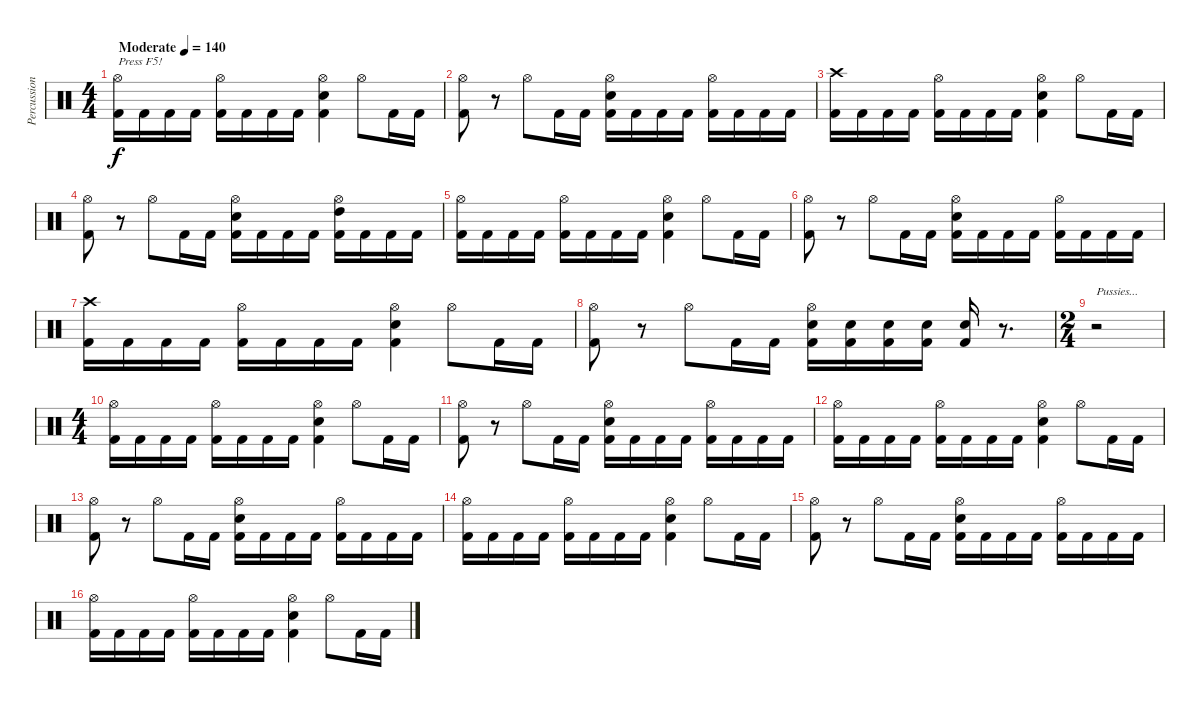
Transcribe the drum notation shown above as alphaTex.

\track ("Percussion" "Percussion") {instrument percussion}
\staff {score}
\articulation defaults
\ts (4 4)
\tempo (140 "Moderate")
\clef neutral
\ks c
("Hi-Hat (open)" "Kick (hit) 2").16{txt "Press F5!" dy f} "Kick (hit) 2".16 "Kick (hit) 2".16 "Kick (hit) 2".16 ("Hi-Hat (open)" "Kick (hit) 2").16 "Kick (hit) 2".16 "Kick (hit) 2".16 "Kick (hit) 2".16 ("Hi-Hat (open)" "Snare (hit) 2" "Kick (hit) 2").4 "Hi-Hat (open)".8 "Kick (hit) 2".16 "Kick (hit) 2".16 |
("Hi-Hat (open)" "Kick (hit) 2").8 r.8 "Hi-Hat (open)".8 "Kick (hit) 2".16 "Kick (hit) 2".16 ("Hi-Hat (open)" "Snare (hit) 2" "Kick (hit) 2").16 "Kick (hit) 2".16 "Kick (hit) 2".16 "Kick (hit) 2".16 ("Hi-Hat (open)" "Kick (hit) 2").16 "Kick (hit) 2".16 "Kick (hit) 2".16 "Kick (hit) 2".16 |
("Crash high (hit)" "Kick (hit) 2").16 "Kick (hit) 2".16 "Kick (hit) 2".16 "Kick (hit) 2".16 ("Hi-Hat (open)" "Kick (hit) 2").16 "Kick (hit) 2".16 "Kick (hit) 2".16 "Kick (hit) 2".16 ("Hi-Hat (open)" "Snare (hit) 2" "Kick (hit) 2").4 "Hi-Hat (open)".8 "Kick (hit) 2".16 "Kick (hit) 2".16 |
("Hi-Hat (open)" "Kick (hit) 2").8 r.8 "Hi-Hat (open)".8 "Kick (hit) 2".16 "Kick (hit) 2".16 ("Hi-Hat (open)" "Snare (hit) 2" "Kick (hit) 2").16 "Kick (hit) 2".16 "Kick (hit) 2".16 "Kick (hit) 2".16 ("Hi-Hat (open)" "High Tom (hit)" "Kick (hit) 2").16 "Kick (hit) 2".16 "Kick (hit) 2".16 "Kick (hit) 2".16 |
("Hi-Hat (open)" "Kick (hit) 2").16 "Kick (hit) 2".16 "Kick (hit) 2".16 "Kick (hit) 2".16 ("Hi-Hat (open)" "Kick (hit) 2").16 "Kick (hit) 2".16 "Kick (hit) 2".16 "Kick (hit) 2".16 ("Hi-Hat (open)" "Snare (hit) 2" "Kick (hit) 2").4 "Hi-Hat (open)".8 "Kick (hit) 2".16 "Kick (hit) 2".16 |
("Hi-Hat (open)" "Kick (hit) 2").8 r.8 "Hi-Hat (open)".8 "Kick (hit) 2".16 "Kick (hit) 2".16 ("Hi-Hat (open)" "Snare (hit) 2" "Kick (hit) 2").16 "Kick (hit) 2".16 "Kick (hit) 2".16 "Kick (hit) 2".16 ("Hi-Hat (open)" "Kick (hit) 2").16 "Kick (hit) 2".16 "Kick (hit) 2".16 "Kick (hit) 2".16 |
("Crash high (hit)" "Kick (hit) 2").16 "Kick (hit) 2".16 "Kick (hit) 2".16 "Kick (hit) 2".16 ("Hi-Hat (open)" "Kick (hit) 2").16 "Kick (hit) 2".16 "Kick (hit) 2".16 "Kick (hit) 2".16 ("Hi-Hat (open)" "Snare (hit) 2" "Kick (hit) 2").4 "Hi-Hat (open)".8 "Kick (hit) 2".16 "Kick (hit) 2".16 |
("Hi-Hat (open)" "Kick (hit) 2").8 r.8 "Hi-Hat (open)".8 "Kick (hit) 2".16 "Kick (hit) 2".16 ("Hi-Hat (open)" "Snare (hit) 2" "Kick (hit) 2").16 ("Snare (hit) 2" "Kick (hit) 2").16 ("Snare (hit) 2" "Kick (hit) 2").16 ("Snare (hit) 2" "Kick (hit) 2").16 ("Snare (hit) 2" "Kick (hit) 2").16 r.8{d} |
\ts (2 4)
r.2{txt "Pussies..."} |
\ts (4 4)
("Hi-Hat (open)" "Kick (hit) 2").16 "Kick (hit) 2".16 "Kick (hit) 2".16 "Kick (hit) 2".16 ("Hi-Hat (open)" "Kick (hit) 2").16 "Kick (hit) 2".16 "Kick (hit) 2".16 "Kick (hit) 2".16 ("Hi-Hat (open)" "Snare (hit) 2" "Kick (hit) 2").4 "Hi-Hat (open)".8 "Kick (hit) 2".16 "Kick (hit) 2".16 |
("Hi-Hat (open)" "Kick (hit) 2").8 r.8 "Hi-Hat (open)".8 "Kick (hit) 2".16 "Kick (hit) 2".16 ("Hi-Hat (open)" "Snare (hit) 2" "Kick (hit) 2").16 "Kick (hit) 2".16 "Kick (hit) 2".16 "Kick (hit) 2".16 ("Hi-Hat (open)" "Kick (hit) 2").16 "Kick (hit) 2".16 "Kick (hit) 2".16 "Kick (hit) 2".16 |
("Hi-Hat (open)" "Kick (hit) 2").16 "Kick (hit) 2".16 "Kick (hit) 2".16 "Kick (hit) 2".16 ("Hi-Hat (open)" "Kick (hit) 2").16 "Kick (hit) 2".16 "Kick (hit) 2".16 "Kick (hit) 2".16 ("Hi-Hat (open)" "Snare (hit) 2" "Kick (hit) 2").4 "Hi-Hat (open)".8 "Kick (hit) 2".16 "Kick (hit) 2".16 |
("Hi-Hat (open)" "Kick (hit) 2").8 r.8 "Hi-Hat (open)".8 "Kick (hit) 2".16 "Kick (hit) 2".16 ("Hi-Hat (open)" "Snare (hit) 2" "Kick (hit) 2").16 "Kick (hit) 2".16 "Kick (hit) 2".16 "Kick (hit) 2".16 ("Hi-Hat (open)" "Kick (hit) 2").16 "Kick (hit) 2".16 "Kick (hit) 2".16 "Kick (hit) 2".16 |
("Hi-Hat (open)" "Kick (hit) 2").16 "Kick (hit) 2".16 "Kick (hit) 2".16 "Kick (hit) 2".16 ("Hi-Hat (open)" "Kick (hit) 2").16 "Kick (hit) 2".16 "Kick (hit) 2".16 "Kick (hit) 2".16 ("Hi-Hat (open)" "Snare (hit) 2" "Kick (hit) 2").4 "Hi-Hat (open)".8 "Kick (hit) 2".16 "Kick (hit) 2".16 |
("Hi-Hat (open)" "Kick (hit) 2").8 r.8 "Hi-Hat (open)".8 "Kick (hit) 2".16 "Kick (hit) 2".16 ("Hi-Hat (open)" "Snare (hit) 2" "Kick (hit) 2").16 "Kick (hit) 2".16 "Kick (hit) 2".16 "Kick (hit) 2".16 ("Hi-Hat (open)" "Kick (hit) 2").16 "Kick (hit) 2".16 "Kick (hit) 2".16 "Kick (hit) 2".16 |
("Hi-Hat (open)" "Kick (hit) 2").16 "Kick (hit) 2".16 "Kick (hit) 2".16 "Kick (hit) 2".16 ("Hi-Hat (open)" "Kick (hit) 2").16 "Kick (hit) 2".16 "Kick (hit) 2".16 "Kick (hit) 2".16 ("Hi-Hat (open)" "Snare (hit) 2" "Kick (hit) 2").4 "Hi-Hat (open)".8 "Kick (hit) 2".16 "Kick (hit) 2".16
